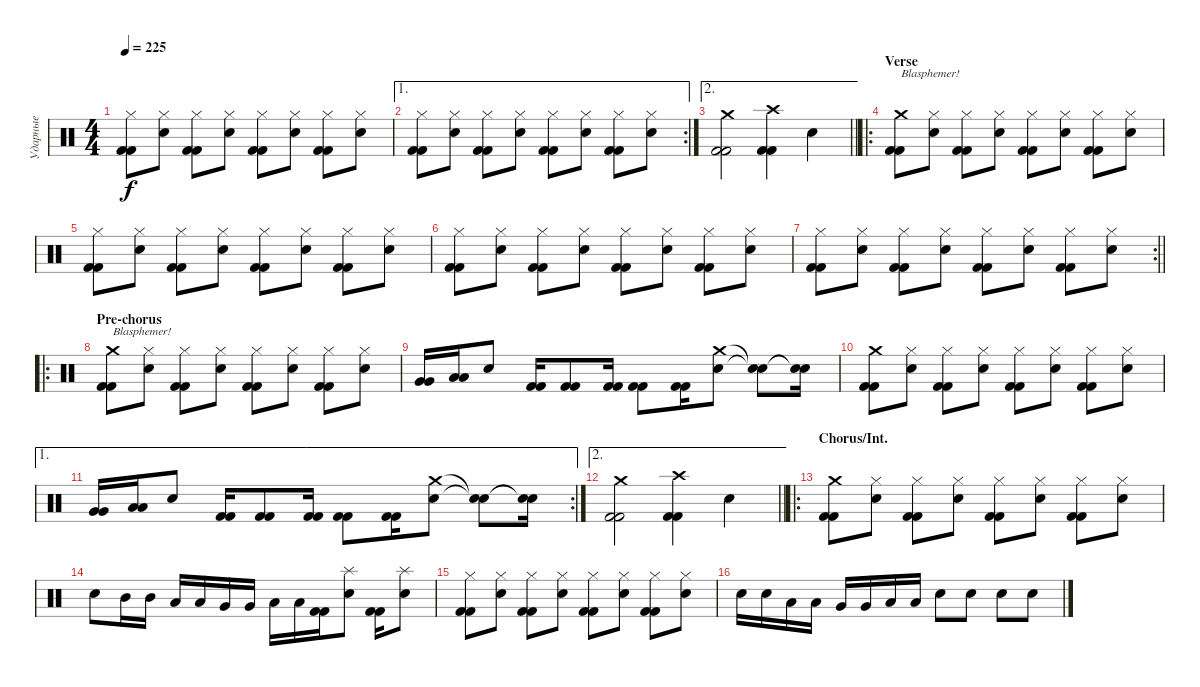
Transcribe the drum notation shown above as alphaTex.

\track ("Ударные" "Ударные") {instrument percussion}
\staff {score}
\articulation defaults
\ts (4 4)
\tempo 225
\clef neutral
\ks c
("Hi-Hat (closed)" "Kick (hit) 2" "Kick (hit) 2").8{dy f} ("Hi-Hat (closed)" "Snare (hit) 2").8 ("Hi-Hat (closed)" "Kick (hit) 2" "Kick (hit) 2").8 ("Hi-Hat (closed)" "Snare (hit) 2").8 ("Hi-Hat (closed)" "Kick (hit) 2" "Kick (hit) 2").8 ("Hi-Hat (closed)" "Snare (hit) 2").8 ("Hi-Hat (closed)" "Kick (hit) 2" "Kick (hit) 2").8 ("Hi-Hat (closed)" "Snare (hit) 2").8 |
\ae 1
\rc 2
("Hi-Hat (closed)" "Kick (hit) 2" "Kick (hit) 2").8 ("Hi-Hat (closed)" "Snare (hit) 2").8 ("Hi-Hat (closed)" "Kick (hit) 2" "Kick (hit) 2").8 ("Hi-Hat (closed)" "Snare (hit) 2").8 ("Hi-Hat (closed)" "Kick (hit) 2" "Kick (hit) 2").8 ("Hi-Hat (closed)" "Snare (hit) 2").8 ("Hi-Hat (closed)" "Kick (hit) 2" "Kick (hit) 2").8 ("Hi-Hat (closed)" "Snare (hit) 2").8 |
\ae 2
\barLineRight lightlight
("Crash medium (hit)" "Kick (hit) 2" "Kick (hit) 2").2 ("Crash high (hit)" "Kick (hit) 2" "Kick (hit) 2").4 "Snare (hit) 2".4 |
\ro
\section ("" "Verse")
("Crash medium (hit)" "Kick (hit) 2" "Kick (hit) 2").8{txt "Blasphemer!"} ("Hi-Hat (closed)" "Snare (hit) 2").8 ("Hi-Hat (closed)" "Kick (hit) 2" "Kick (hit) 2").8 ("Hi-Hat (closed)" "Snare (hit) 2").8 ("Hi-Hat (closed)" "Kick (hit) 2" "Kick (hit) 2").8 ("Hi-Hat (closed)" "Snare (hit) 2").8 ("Hi-Hat (closed)" "Kick (hit) 2" "Kick (hit) 2").8 ("Hi-Hat (closed)" "Snare (hit) 2").8 |
("Hi-Hat (closed)" "Kick (hit) 2" "Kick (hit) 2").8 ("Hi-Hat (closed)" "Snare (hit) 2").8 ("Hi-Hat (closed)" "Kick (hit) 2" "Kick (hit) 2").8 ("Hi-Hat (closed)" "Snare (hit) 2").8 ("Hi-Hat (closed)" "Kick (hit) 2" "Kick (hit) 2").8 ("Hi-Hat (closed)" "Snare (hit) 2").8 ("Hi-Hat (closed)" "Kick (hit) 2" "Kick (hit) 2").8 ("Hi-Hat (closed)" "Snare (hit) 2").8 |
("Hi-Hat (closed)" "Kick (hit) 2" "Kick (hit) 2").8 ("Hi-Hat (closed)" "Snare (hit) 2").8 ("Hi-Hat (closed)" "Kick (hit) 2" "Kick (hit) 2").8 ("Hi-Hat (closed)" "Snare (hit) 2").8 ("Hi-Hat (closed)" "Kick (hit) 2" "Kick (hit) 2").8 ("Hi-Hat (closed)" "Snare (hit) 2").8 ("Hi-Hat (closed)" "Kick (hit) 2" "Kick (hit) 2").8 ("Hi-Hat (closed)" "Snare (hit) 2").8 |
\rc 2
\barLineRight lightlight
("Hi-Hat (closed)" "Kick (hit) 2" "Kick (hit) 2").8 ("Hi-Hat (closed)" "Snare (hit) 2").8 ("Hi-Hat (closed)" "Kick (hit) 2" "Kick (hit) 2").8 ("Hi-Hat (closed)" "Snare (hit) 2").8 ("Hi-Hat (closed)" "Kick (hit) 2" "Kick (hit) 2").8 ("Hi-Hat (closed)" "Snare (hit) 2").8 ("Hi-Hat (closed)" "Kick (hit) 2" "Kick (hit) 2").8 ("Hi-Hat (closed)" "Snare (hit) 2").8 |
\ro
\section ("" "Pre-chorus")
("Crash medium (hit)" "Kick (hit) 2" "Kick (hit) 2").8{txt "Blasphemer!"} ("Hi-Hat (closed)" "Snare (hit) 2").8 ("Hi-Hat (closed)" "Kick (hit) 2" "Kick (hit) 2").8 ("Hi-Hat (closed)" "Snare (hit) 2").8 ("Hi-Hat (closed)" "Kick (hit) 2" "Kick (hit) 2").8 ("Hi-Hat (closed)" "Snare (hit) 2").8 ("Hi-Hat (closed)" "Kick (hit) 2" "Kick (hit) 2").8 ("Hi-Hat (closed)" "Snare (hit) 2").8 |
("Very Low Tom (hit)" "Very Low Tom (hit)").16 ("Low Tom (hit)" "Low Tom (hit)").16 "Snare (hit) 2".8 ("Kick (hit) 2" "Kick (hit) 2").16 ("Kick (hit) 2" "Kick (hit) 2").8 ("Kick (hit) 2" "Kick (hit) 2").16 ("Kick (hit) 2" "Kick (hit) 2").8 ("Kick (hit) 2" "Kick (hit) 2").16 ("Crash medium (hit)" "Snare (hit) 2").8 ("Snare (hit)"{t} "Snare (hit)"{t}).8 ("Snare (hit)"{t} "Snare (hit)"{t}).16 |
("Crash medium (hit)" "Kick (hit) 2" "Kick (hit) 2").8 ("Hi-Hat (closed)" "Snare (hit) 2").8 ("Hi-Hat (closed)" "Kick (hit) 2" "Kick (hit) 2").8 ("Hi-Hat (closed)" "Snare (hit) 2").8 ("Hi-Hat (closed)" "Kick (hit) 2" "Kick (hit) 2").8 ("Hi-Hat (closed)" "Snare (hit) 2").8 ("Hi-Hat (closed)" "Kick (hit) 2" "Kick (hit) 2").8 ("Hi-Hat (closed)" "Snare (hit) 2").8 |
\ae 1
\rc 2
("Very Low Tom (hit)" "Very Low Tom (hit)").16 ("Low Tom (hit)" "Low Tom (hit)").16 "Snare (hit) 2".8 ("Kick (hit) 2" "Kick (hit) 2").16 ("Kick (hit) 2" "Kick (hit) 2").8 ("Kick (hit) 2" "Kick (hit) 2").16 ("Kick (hit) 2" "Kick (hit) 2").8 ("Kick (hit) 2" "Kick (hit) 2").16 ("Crash medium (hit)" "Snare (hit) 2").8 ("Snare (hit)"{t} "Snare (hit)"{t}).8 ("Snare (hit)"{t} "Snare (hit)"{t}).16 |
\ae 2
\barLineRight lightlight
("Crash medium (hit)" "Kick (hit) 2" "Kick (hit) 2").2 ("Crash high (hit)" "Kick (hit) 2" "Kick (hit) 2").4 "Snare (hit) 2".4 |
\ro
\section ("" "Chorus/Int.")
("Crash medium (hit)" "Kick (hit) 2" "Kick (hit) 2").8 ("Hi-Hat (closed)" "Snare (hit) 2").8 ("Hi-Hat (closed)" "Kick (hit) 2" "Kick (hit) 2").8 ("Hi-Hat (closed)" "Snare (hit) 2").8 ("Hi-Hat (closed)" "Kick (hit) 2" "Kick (hit) 2").8 ("Hi-Hat (closed)" "Snare (hit) 2").8 ("Hi-Hat (closed)" "Kick (hit) 2" "Kick (hit) 2").8 ("Hi-Hat (closed)" "Snare (hit) 2").8 |
"Snare (hit) 2".8 "Mid Tom (hit)".16 "Mid Tom (hit)".16 "Low Tom (hit)".16 "Low Tom (hit)".16 "Very Low Tom (hit)".16 "Very Low Tom (hit)".16 "Low Floor Tom (hit)".16 "Low Floor Tom (hit)".16 ("Kick (hit) 2" "Kick (hit) 2").16 ("Splash (hit)" "Snare (hit) 2").8 ("Kick (hit) 2" "Kick (hit) 2").16 ("Splash (hit)" "Snare (hit) 2").8 |
("Hi-Hat (closed)" "Kick (hit) 2" "Kick (hit) 2").8 ("Hi-Hat (closed)" "Snare (hit) 2").8 ("Hi-Hat (closed)" "Kick (hit) 2" "Kick (hit) 2").8 ("Hi-Hat (closed)" "Snare (hit) 2").8 ("Hi-Hat (closed)" "Kick (hit) 2" "Kick (hit) 2").8 ("Hi-Hat (closed)" "Snare (hit) 2").8 ("Hi-Hat (closed)" "Kick (hit) 2" "Kick (hit) 2").8 ("Hi-Hat (closed)" "Snare (hit) 2").8 |
"Snare (hit) 2".16 "Snare (hit) 2".16 "Low Tom (hit)".16 "Low Tom (hit)".16 "Very Low Tom (hit)".16 "Very Low Tom (hit)".16 "Low Floor Tom (hit)".16 "Low Floor Tom (hit)".16 "Snare (hit) 2".8 "Snare (hit) 2".8 "Snare (hit) 2".8 "Snare (hit) 2".8
